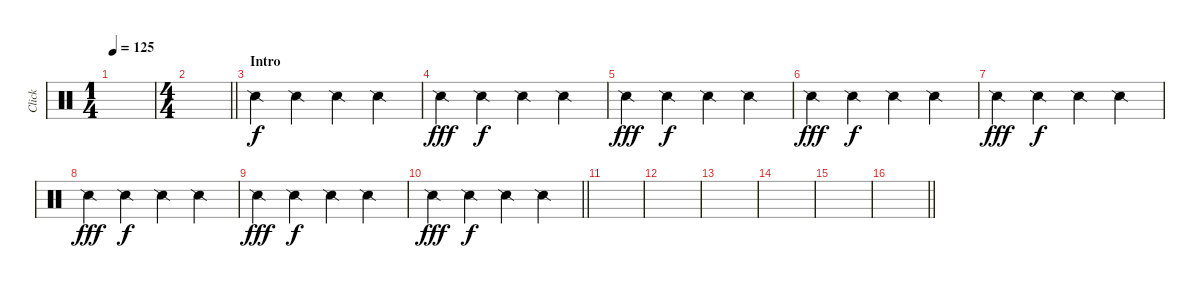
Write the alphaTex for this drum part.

\track ("Click" "Click") {instrument percussion}
\staff {score}
\articulation defaults
\ts (1 4)
\tempo 125
\clef neutral
\ks c
|
\ts (4 4)
\barLineRight lightlight
|
\section ("" "Intro")
"Snare (side stick) 2".4 "Snare (side stick) 2".4{dy f} "Snare (side stick) 2".4 "Snare (side stick) 2".4 |
"Snare (side stick) 2".4{dy fff} "Snare (side stick) 2".4{dy f} "Snare (side stick) 2".4 "Snare (side stick) 2".4 |
"Snare (side stick) 2".4{dy fff} "Snare (side stick) 2".4{dy f} "Snare (side stick) 2".4 "Snare (side stick) 2".4 |
"Snare (side stick) 2".4{dy fff} "Snare (side stick) 2".4{dy f} "Snare (side stick) 2".4 "Snare (side stick) 2".4 |
"Snare (side stick) 2".4{dy fff} "Snare (side stick) 2".4{dy f} "Snare (side stick) 2".4 "Snare (side stick) 2".4 |
"Snare (side stick) 2".4{dy fff} "Snare (side stick) 2".4{dy f} "Snare (side stick) 2".4 "Snare (side stick) 2".4 |
"Snare (side stick) 2".4{dy fff} "Snare (side stick) 2".4{dy f} "Snare (side stick) 2".4 "Snare (side stick) 2".4 |
\barLineRight lightlight "Snare (side stick) 2".4{dy fff} "Snare (side stick) 2".4{dy f} "Snare (side stick) 2".4 "Snare (side stick) 2".4
|
|
|
|
|
|
\barLineRight lightlight
